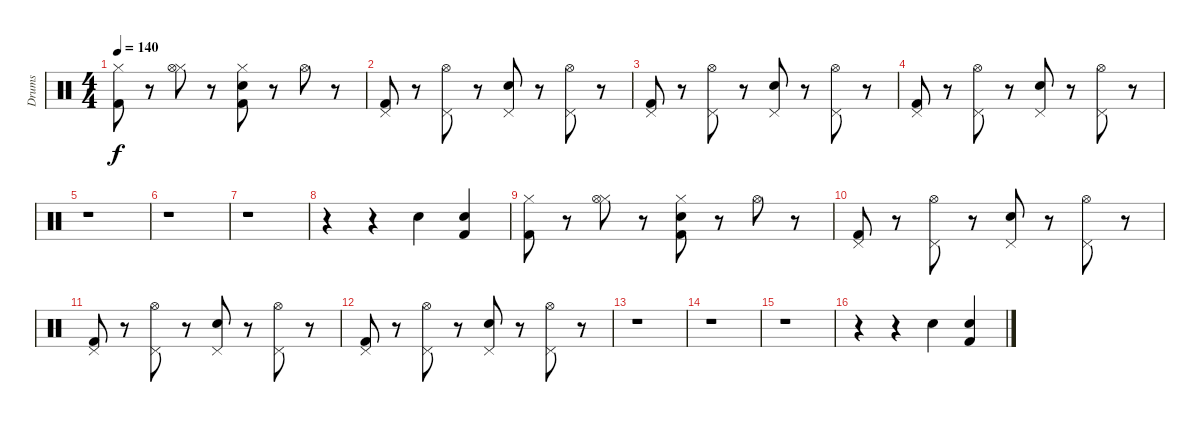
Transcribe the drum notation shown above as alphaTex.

\track ("Drums" "Drums") {instrument percussion}
\staff {score}
\articulation defaults
\ts (4 4)
\tempo 140
\clef neutral
\ks c
("Hi-Hat (closed)" "Kick (hit) 2").8{dy f} r.8 ("Hi-Hat (closed)" "Hi-Hat (open)").8 r.8 ("Kick (hit) 2" "Snare (hit) 2" "Hi-Hat (closed)").8 r.8 "Hi-Hat (open)".8 r.8 |
("Pedal Hi-Hat (hit)" "Kick (hit) 2").8 r.8 ("Pedal Hi-Hat (hit)" "Hi-Hat (open)").8 r.8 ("Pedal Hi-Hat (hit)" "Snare (hit) 2").8 r.8 ("Pedal Hi-Hat (hit)" "Hi-Hat (open)").8 r.8 |
("Pedal Hi-Hat (hit)" "Kick (hit) 2").8 r.8 ("Pedal Hi-Hat (hit)" "Hi-Hat (open)").8 r.8 ("Pedal Hi-Hat (hit)" "Snare (hit) 2").8 r.8 ("Pedal Hi-Hat (hit)" "Hi-Hat (open)").8 r.8 |
("Pedal Hi-Hat (hit)" "Kick (hit) 2").8 r.8 ("Pedal Hi-Hat (hit)" "Hi-Hat (open)").8 r.8 ("Pedal Hi-Hat (hit)" "Snare (hit) 2").8 r.8 ("Pedal Hi-Hat (hit)" "Hi-Hat (open)").8 r.8 |
r.1 |
r.1 |
r.1 |
r.4 r.4 "Electric Snare (hit)".4 ("Kick (hit) 2" "Snare (hit) 2").4 |
("Hi-Hat (closed)" "Kick (hit) 2").8 r.8 ("Hi-Hat (closed)" "Hi-Hat (open)").8 r.8 ("Kick (hit) 2" "Snare (hit) 2" "Hi-Hat (closed)").8 r.8 "Hi-Hat (open)".8 r.8 |
("Pedal Hi-Hat (hit)" "Kick (hit) 2").8 r.8 ("Pedal Hi-Hat (hit)" "Hi-Hat (open)").8 r.8 ("Pedal Hi-Hat (hit)" "Snare (hit) 2").8 r.8 ("Pedal Hi-Hat (hit)" "Hi-Hat (open)").8 r.8 |
("Pedal Hi-Hat (hit)" "Kick (hit) 2").8 r.8 ("Pedal Hi-Hat (hit)" "Hi-Hat (open)").8 r.8 ("Pedal Hi-Hat (hit)" "Snare (hit) 2").8 r.8 ("Pedal Hi-Hat (hit)" "Hi-Hat (open)").8 r.8 |
("Pedal Hi-Hat (hit)" "Kick (hit) 2").8 r.8 ("Pedal Hi-Hat (hit)" "Hi-Hat (open)").8 r.8 ("Pedal Hi-Hat (hit)" "Snare (hit) 2").8 r.8 ("Pedal Hi-Hat (hit)" "Hi-Hat (open)").8 r.8 |
r.1 |
r.1 |
r.1 |
r.4 r.4 "Electric Snare (hit)".4 ("Kick (hit) 2" "Snare (hit) 2").4
